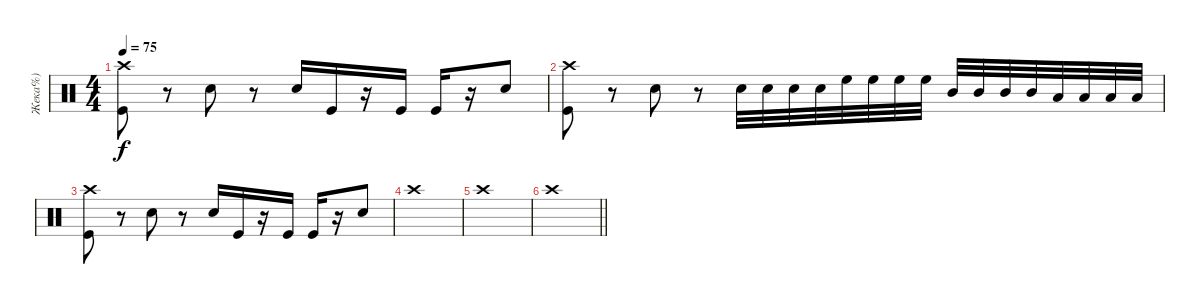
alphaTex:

\track ("Жека%)" "Жека%)") {instrument percussion}
\staff {score}
\articulation defaults
\ts (4 4)
\tempo 75
\clef neutral
\ks c
("Kick (hit)" "Crash high (hit)").8{dy f} r.8 "Snare (hit) 2".8 r.8 "Snare (hit) 2".16 "Kick (hit)".16 r.16 "Kick (hit)".16 "Kick (hit)".16 r.16 "Snare (hit) 2".8 |
("Kick (hit)" "Crash high (hit)").8 r.8 "Snare (hit) 2".8 r.8 "Snare (hit) 2".32 "Snare (hit) 2".32 "Snare (hit) 2".32 "Snare (hit) 2".32 "High Floor Tom (hit)".32 "High Floor Tom (hit)".32 "High Floor Tom (hit)".32 "High Floor Tom (hit)".32 "Mid Tom (hit)".32 "Mid Tom (hit)".32 "Mid Tom (hit)".32 "Mid Tom (hit)".32 "Low Tom (hit)".32 "Low Tom (hit)".32 "Low Tom (hit)".32 "Low Tom (hit)".32 |
("Kick (hit)" "Crash high (hit)").8 r.8 "Snare (hit) 2".8 r.8 "Snare (hit) 2".16 "Kick (hit)".16 r.16 "Kick (hit)".16 "Kick (hit)".16 r.16 "Snare (hit) 2".8 |
"Crash high (hit)".1 |
"Crash high (hit)".1 |
\barLineRight lightlight "Crash high (hit)".1
